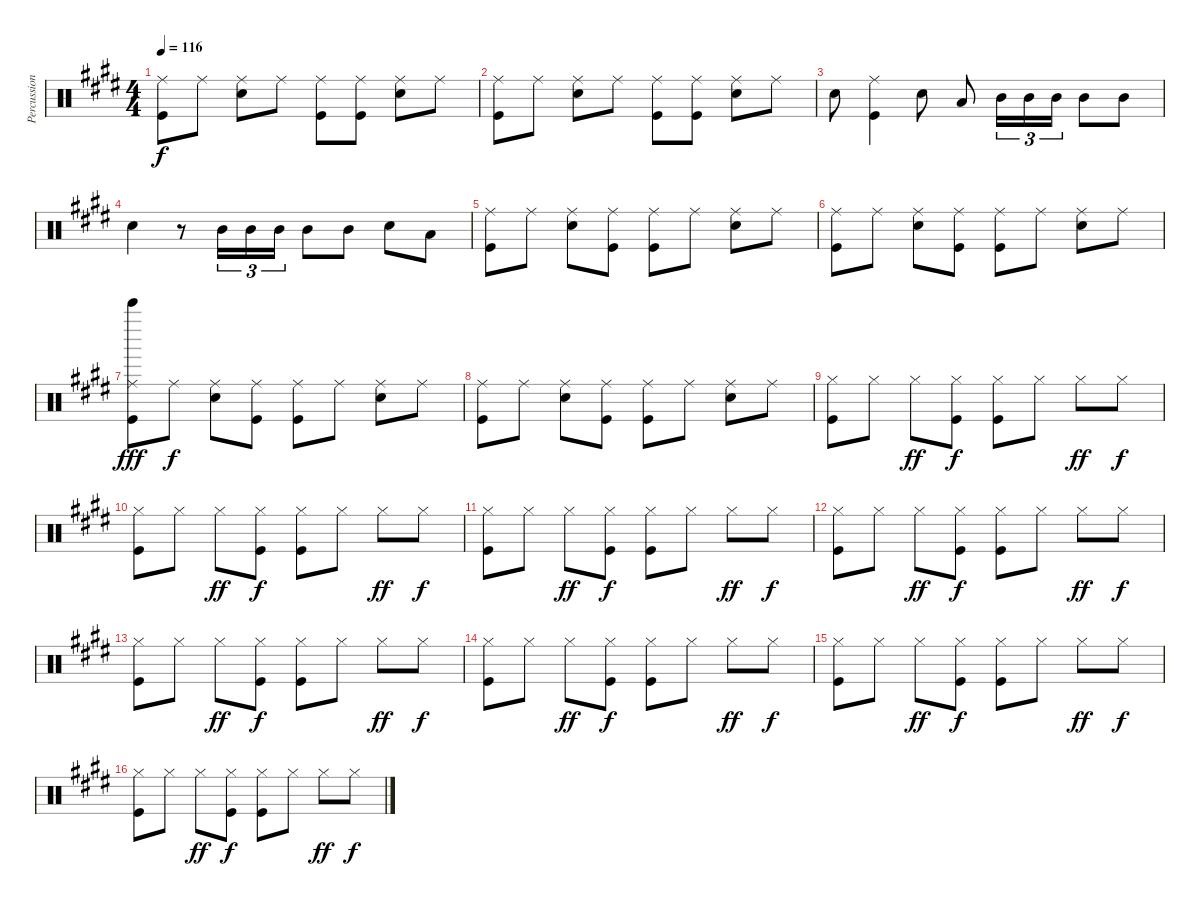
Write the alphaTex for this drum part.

\track ("Percussion" "Percussion") {instrument percussion}
\staff {score}
\articulation defaults
\ts (4 4)
\tempo 116
\clef neutral
\ks e
("Ride (middle)" "Kick (hit)").8{dy f} "Ride (middle)".8 ("Ride (middle)" "Snare (hit) 2").8 "Ride (middle)".8 ("Ride (middle)" "Kick (hit)").8 ("Ride (middle)" "Kick (hit)").8 ("Ride (middle)" "Snare (hit) 2").8 "Ride (middle)".8 |
("Ride (middle)" "Kick (hit)").8 "Ride (middle)".8 ("Ride (middle)" "Snare (hit) 2").8 "Ride (middle)".8 ("Ride (middle)" "Kick (hit)").8 ("Ride (middle)" "Kick (hit)").8 ("Ride (middle)" "Snare (hit) 2").8 "Ride (middle)".8 |
"Snare (hit) 2".8 ("Ride (middle)" "Kick (hit)").4 "Snare (hit) 2".8 "Low Tom (hit)".8 "Mid Tom (hit)".16{tu (3 2)} "Mid Tom (hit)".16{tu (3 2)} "Mid Tom (hit)".16{tu (3 2)} "Mid Tom (hit)".8 "Mid Tom (hit)".8 |
"Snare (hit) 2".4 r.8 "Mid Tom (hit)".16{tu (3 2)} "Mid Tom (hit)".16{tu (3 2)} "Mid Tom (hit)".16{tu (3 2)} "Mid Tom (hit)".8 "Mid Tom (hit)".8 "Snare (hit) 2".8 "Low Tom (hit)".8 |
("Ride (middle)" "Kick (hit)").8 "Ride (middle)".8 ("Ride (middle)" "Snare (hit) 2").8 ("Ride (middle)" "Kick (hit)").8 ("Ride (middle)" "Kick (hit)").8 "Ride (middle)".8 ("Ride (middle)" "Snare (hit) 2").8 "Ride (middle)".8 |
("Ride (middle)" "Kick (hit)").8 "Ride (middle)".8 ("Ride (middle)" "Snare (hit) 2").8 ("Ride (middle)" "Kick (hit)").8 ("Ride (middle)" "Kick (hit)").8 "Ride (middle)".8 ("Ride (middle)" "Snare (hit) 2").8 "Ride (middle)".8 |
("Ride (middle)" "Bell Tree (hit)" "Kick (hit)").8{dy fff} "Ride (middle)".8{dy f} ("Ride (middle)" "Snare (hit) 2").8 ("Ride (middle)" "Kick (hit)").8 ("Ride (middle)" "Kick (hit)").8 "Ride (middle)".8 ("Ride (middle)" "Snare (hit) 2").8 "Ride (middle)".8 |
("Ride (middle)" "Kick (hit)").8 "Ride (middle)".8 ("Ride (middle)" "Snare (hit) 2").8 ("Ride (middle)" "Kick (hit)").8 ("Ride (middle)" "Kick (hit)").8 "Ride (middle)".8 ("Ride (middle)" "Snare (hit) 2").8 "Ride (middle)".8 |
("Hi-Hat (closed)" "Kick (hit)").8 "Hi-Hat (closed)".8 "Hi-Hat (closed)".8{dy ff} ("Hi-Hat (closed)" "Kick (hit)").8{dy f} ("Hi-Hat (closed)" "Kick (hit)").8 "Hi-Hat (closed)".8 "Hi-Hat (closed)".8{dy ff} "Hi-Hat (closed)".8{dy f} |
("Hi-Hat (closed)" "Kick (hit)").8 "Hi-Hat (closed)".8 "Hi-Hat (closed)".8{dy ff} ("Hi-Hat (closed)" "Kick (hit)").8{dy f} ("Hi-Hat (closed)" "Kick (hit)").8 "Hi-Hat (closed)".8 "Hi-Hat (closed)".8{dy ff} "Hi-Hat (closed)".8{dy f} |
("Hi-Hat (closed)" "Kick (hit)").8 "Hi-Hat (closed)".8 "Hi-Hat (closed)".8{dy ff} ("Hi-Hat (closed)" "Kick (hit)").8{dy f} ("Hi-Hat (closed)" "Kick (hit)").8 "Hi-Hat (closed)".8 "Hi-Hat (closed)".8{dy ff} "Hi-Hat (closed)".8{dy f} |
("Hi-Hat (closed)" "Kick (hit)").8 "Hi-Hat (closed)".8 "Hi-Hat (closed)".8{dy ff} ("Hi-Hat (closed)" "Kick (hit)").8{dy f} ("Hi-Hat (closed)" "Kick (hit)").8 "Hi-Hat (closed)".8 "Hi-Hat (closed)".8{dy ff} "Hi-Hat (closed)".8{dy f} |
("Hi-Hat (closed)" "Kick (hit)").8 "Hi-Hat (closed)".8 "Hi-Hat (closed)".8{dy ff} ("Hi-Hat (closed)" "Kick (hit)").8{dy f} ("Hi-Hat (closed)" "Kick (hit)").8 "Hi-Hat (closed)".8 "Hi-Hat (closed)".8{dy ff} "Hi-Hat (closed)".8{dy f} |
("Hi-Hat (closed)" "Kick (hit)").8 "Hi-Hat (closed)".8 "Hi-Hat (closed)".8{dy ff} ("Hi-Hat (closed)" "Kick (hit)").8{dy f} ("Hi-Hat (closed)" "Kick (hit)").8 "Hi-Hat (closed)".8 "Hi-Hat (closed)".8{dy ff} "Hi-Hat (closed)".8{dy f} |
("Hi-Hat (closed)" "Kick (hit)").8 "Hi-Hat (closed)".8 "Hi-Hat (closed)".8{dy ff} ("Hi-Hat (closed)" "Kick (hit)").8{dy f} ("Hi-Hat (closed)" "Kick (hit)").8 "Hi-Hat (closed)".8 "Hi-Hat (closed)".8{dy ff} "Hi-Hat (closed)".8{dy f} |
("Hi-Hat (closed)" "Kick (hit)").8 "Hi-Hat (closed)".8 "Hi-Hat (closed)".8{dy ff} ("Hi-Hat (closed)" "Kick (hit)").8{dy f} ("Hi-Hat (closed)" "Kick (hit)").8 "Hi-Hat (closed)".8 "Hi-Hat (closed)".8{dy ff} "Hi-Hat (closed)".8{dy f}
